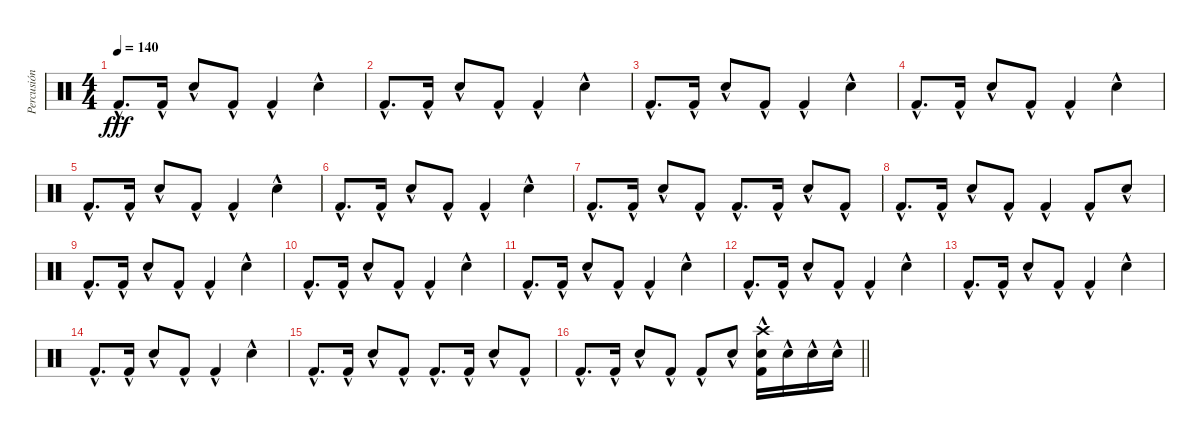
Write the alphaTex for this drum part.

\track ("Percusión" "Percusión") {instrument percussion}
\staff {score}
\articulation defaults
\ts (4 4)
\tempo 140
\clef neutral
\ks c "Kick (hit) 2"{hac}.8{d dy fff} "Kick (hit) 2"{hac}.16 "Snare (hit) 2"{hac}.8 "Kick (hit) 2"{hac}.8 "Kick (hit) 2"{hac}.4 "Snare (hit) 2"{hac}.4
|
"Kick (hit) 2"{hac}.8{d} "Kick (hit) 2"{hac}.16 "Snare (hit) 2"{hac}.8 "Kick (hit) 2"{hac}.8 "Kick (hit) 2"{hac}.4 "Snare (hit) 2"{hac}.4 |
"Kick (hit) 2"{hac}.8{d} "Kick (hit) 2"{hac}.16 "Snare (hit) 2"{hac}.8 "Kick (hit) 2"{hac}.8 "Kick (hit) 2"{hac}.4 "Snare (hit) 2"{hac}.4 |
"Kick (hit) 2"{hac}.8{d} "Kick (hit) 2"{hac}.16 "Snare (hit) 2"{hac}.8 "Kick (hit) 2"{hac}.8 "Kick (hit) 2"{hac}.4 "Snare (hit) 2"{hac}.4 |
"Kick (hit) 2"{hac}.8{d} "Kick (hit) 2"{hac}.16 "Snare (hit) 2"{hac}.8 "Kick (hit) 2"{hac}.8 "Kick (hit) 2"{hac}.4 "Snare (hit) 2"{hac}.4 |
"Kick (hit) 2"{hac}.8{d} "Kick (hit) 2"{hac}.16 "Snare (hit) 2"{hac}.8 "Kick (hit) 2"{hac}.8 "Kick (hit) 2"{hac}.4 "Snare (hit) 2"{hac}.4 |
"Kick (hit) 2"{hac}.8{d} "Kick (hit) 2"{hac}.16 "Snare (hit) 2"{hac}.8 "Kick (hit) 2"{hac}.8 "Kick (hit) 2"{hac}.8{d} "Kick (hit) 2"{hac}.16 "Snare (hit) 2"{hac}.8 "Kick (hit) 2"{hac}.8 |
"Kick (hit) 2"{hac}.8{d} "Kick (hit) 2"{hac}.16 "Snare (hit) 2"{hac}.8 "Kick (hit) 2"{hac}.8 "Kick (hit) 2"{hac}.4 "Kick (hit) 2"{hac}.8 "Snare (hit) 2"{hac}.8 |
"Kick (hit) 2"{hac}.8{d} "Kick (hit) 2"{hac}.16 "Snare (hit) 2"{hac}.8 "Kick (hit) 2"{hac}.8 "Kick (hit) 2"{hac}.4 "Snare (hit) 2"{hac}.4 |
"Kick (hit) 2"{hac}.8{d} "Kick (hit) 2"{hac}.16 "Snare (hit) 2"{hac}.8 "Kick (hit) 2"{hac}.8 "Kick (hit) 2"{hac}.4 "Snare (hit) 2"{hac}.4 |
"Kick (hit) 2"{hac}.8{d} "Kick (hit) 2"{hac}.16 "Snare (hit) 2"{hac}.8 "Kick (hit) 2"{hac}.8 "Kick (hit) 2"{hac}.4 "Snare (hit) 2"{hac}.4 |
"Kick (hit) 2"{hac}.8{d} "Kick (hit) 2"{hac}.16 "Snare (hit) 2"{hac}.8 "Kick (hit) 2"{hac}.8 "Kick (hit) 2"{hac}.4 "Snare (hit) 2"{hac}.4 |
"Kick (hit) 2"{hac}.8{d} "Kick (hit) 2"{hac}.16 "Snare (hit) 2"{hac}.8 "Kick (hit) 2"{hac}.8 "Kick (hit) 2"{hac}.4 "Snare (hit) 2"{hac}.4 |
"Kick (hit) 2"{hac}.8{d} "Kick (hit) 2"{hac}.16 "Snare (hit) 2"{hac}.8 "Kick (hit) 2"{hac}.8 "Kick (hit) 2"{hac}.4 "Snare (hit) 2"{hac}.4 |
"Kick (hit) 2"{hac}.8{d} "Kick (hit) 2"{hac}.16 "Snare (hit) 2"{hac}.8 "Kick (hit) 2"{hac}.8 "Kick (hit) 2"{hac}.8{d} "Kick (hit) 2"{hac}.16 "Snare (hit) 2"{hac}.8 "Kick (hit) 2"{hac}.8 |
\barLineRight lightlight "Kick (hit) 2"{hac}.8{d} "Kick (hit) 2"{hac}.16 "Snare (hit) 2"{hac}.8 "Kick (hit) 2"{hac}.8 "Kick (hit) 2"{hac}.8 "Snare (hit) 2"{hac}.8
("Snare (hit) 2"{hac} "Kick (hit) 2"{hac} "Crash high (hit)"{hac}).16 "Snare (hit) 2"{hac}.16 "Snare (hit) 2"{hac}.16 "Snare (hit) 2"{hac}.16
